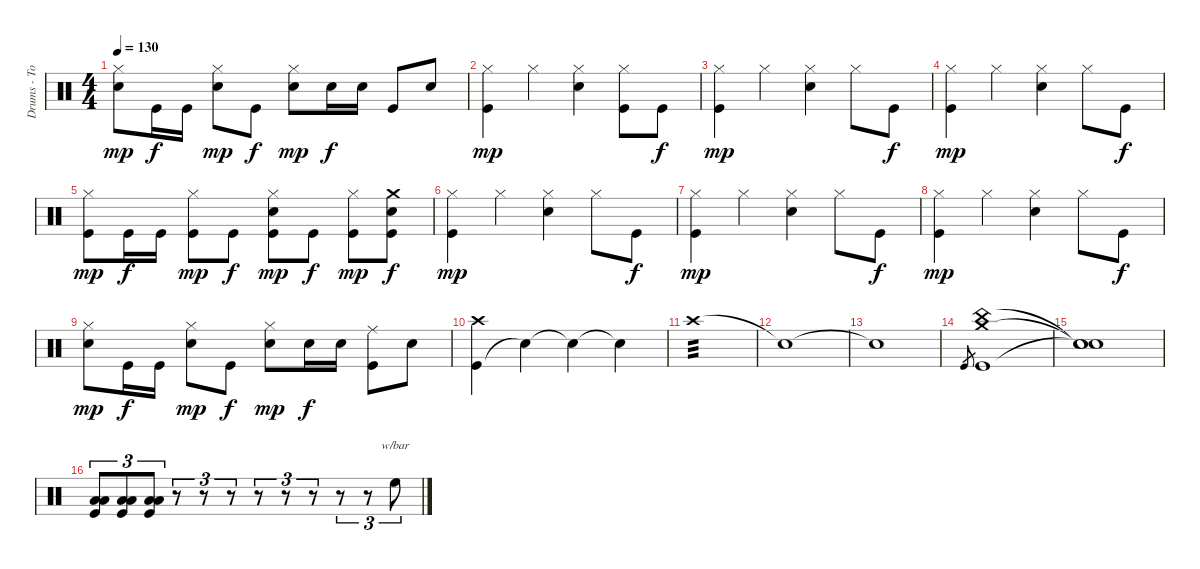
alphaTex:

\track ("Drums - Tomas" "Drums - To") {instrument percussion}
\staff {score}
\articulation defaults
\ts (4 4)
\tempo 130
\clef neutral
\ks c
("Hi-Hat (closed)" "Electric Snare (hit)").8{dy mp} "Kick (hit)".16{dy f} "Kick (hit)".16 ("Hi-Hat (closed)" "Electric Snare (hit)").8{dy mp} "Kick (hit)".8{dy f} ("Hi-Hat (closed)" "Electric Snare (hit)").8{dy mp} "Electric Snare (hit)".16{dy f} "Electric Snare (hit)".16 "Kick (hit)".8 "Electric Snare (hit)".8 |
("Hi-Hat (closed)" "Kick (hit)").4{dy mp} "Hi-Hat (closed)".4 ("Hi-Hat (closed)" "Electric Snare (hit)").4 ("Hi-Hat (closed)" "Kick (hit)").8 "Kick (hit)".8{dy f} |
("Hi-Hat (closed)" "Kick (hit)").4{dy mp} "Hi-Hat (closed)".4 ("Hi-Hat (closed)" "Electric Snare (hit)").4 "Hi-Hat (closed)".8 "Kick (hit)".8{dy f} |
("Hi-Hat (closed)" "Kick (hit)").4{dy mp} "Hi-Hat (closed)".4 ("Hi-Hat (closed)" "Electric Snare (hit)").4 "Hi-Hat (closed)".8 "Kick (hit)".8{dy f} |
("Hi-Hat (closed)" "Kick (hit)").8{dy mp} "Kick (hit)".16{dy f} "Kick (hit)".16 ("Hi-Hat (closed)" "Kick (hit)").8{dy mp} "Kick (hit)".8{dy f} ("Hi-Hat (closed)" "Electric Snare (hit)" "Kick (hit)").8{dy mp} "Kick (hit)".8{dy f} ("Hi-Hat (closed)" "Kick (hit)").8{dy mp} ("Crash medium (hit)" "Electric Snare (hit)" "Kick (hit)").8{dy f} |
("Hi-Hat (closed)" "Kick (hit)").4{dy mp} "Hi-Hat (closed)".4 ("Hi-Hat (closed)" "Electric Snare (hit)").4 "Hi-Hat (closed)".8 "Kick (hit)".8{dy f} |
("Hi-Hat (closed)" "Kick (hit)").4{dy mp} "Hi-Hat (closed)".4 ("Hi-Hat (closed)" "Electric Snare (hit)").4 "Hi-Hat (closed)".8 "Kick (hit)".8{dy f} |
("Hi-Hat (closed)" "Kick (hit)").4{dy mp} "Hi-Hat (closed)".4 ("Hi-Hat (closed)" "Electric Snare (hit)").4 "Hi-Hat (closed)".8 "Kick (hit)".8{dy f} |
("Hi-Hat (closed)" "Electric Snare (hit)").8{dy mp} "Kick (hit)".16{dy f} "Kick (hit)".16 ("Hi-Hat (closed)" "Electric Snare (hit)").8{dy mp} "Kick (hit)".8{dy f} ("Hi-Hat (closed)" "Electric Snare (hit)").8{dy mp} "Electric Snare (hit)".16{dy f} "Electric Snare (hit)".16 ("Ride (middle)" "Kick (hit)").8 "Electric Snare (hit)".8 |
("Kick (hit)" "Crash high (hit)").4 "Snare (hit)"{t}.4 "Snare (hit)"{t}.4 "Snare (hit)"{t}.4{volume 0} |
"Crash high (hit)".1{tp 3 volume 16} |
"Snare (hit)"{t}.1 |
"Snare (hit)"{t}.1 |
"Kick (hit)".8{gr} ("Kick (hit)" "China (hit)" "Crash medium (hit)").1 |
("Snare (hit)"{t} "Snare (hit)"{t} "Snare (hit)"{t}).1 |
("Low Floor Tom (hit)" "Low Floor Tom (hit)" "Kick (hit)").8{tu (3 2)} ("Low Floor Tom (hit)" "Low Floor Tom (hit)" "Kick (hit)").8{tu (3 2)} ("Low Floor Tom (hit)" "Low Floor Tom (hit)" "Kick (hit)").8{tu (3 2)} r.8{tu (3 2)} r.8{tu (3 2)} r.8{tu (3 2)} r.8{tu (3 2)} r.8{tu (3 2)} r.8{tu (3 2)} r.8{tu (3 2)} r.8{tu (3 2)} "High Floor Tom (hit)".8{tu (3 2) tbe (custom default 0 0 14 -18 45 8 47 -24 56 -22 60 8)}
